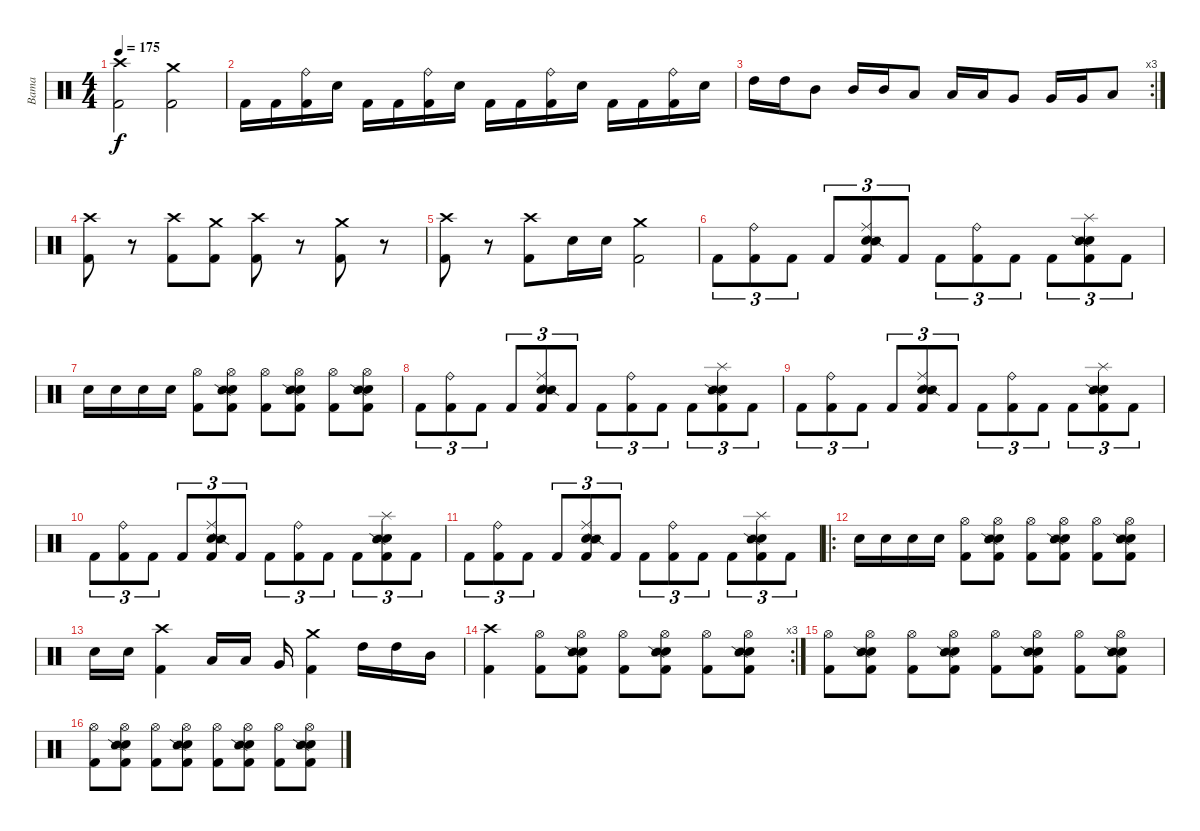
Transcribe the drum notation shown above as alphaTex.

\track ("Bama" "Bama") {instrument percussion}
\staff {score}
\articulation defaults
\ts (4 4)
\tempo 175
\clef neutral
\ks c
("Crash high (hit)" "Kick (hit) 2").2{dy f} ("Crash medium (hit)" "Kick (hit) 2").2 |
"Kick (hit) 2".16 "Kick (hit) 2".16 ("Ride (bell)" "Kick (hit) 2").16 "Electric Snare (hit)".16 "Kick (hit) 2".16 "Kick (hit) 2".16 ("Ride (bell)" "Kick (hit) 2").16 "Electric Snare (hit)".16 "Kick (hit) 2".16 "Kick (hit) 2".16 ("Ride (bell)" "Kick (hit) 2").16 "Electric Snare (hit)".16 "Kick (hit) 2".16 "Kick (hit) 2".16 ("Ride (bell)" "Kick (hit) 2").16 "Electric Snare (hit)".16 |
\rc 3 "High Tom (hit)".16 "High Tom (hit)".16 "Mid Tom (hit)".8 "Mid Tom (hit)".16 "Mid Tom (hit)".16 "Low Tom (hit)".8 "Low Tom (hit)".16 "Low Tom (hit)".16 "Very Low Tom (hit)".8 "Very Low Tom (hit)".16 "Very Low Tom (hit)".16 "Low Floor Tom (hit)".8
|
("Crash high (hit)" "Kick (hit) 2").8 r.8 ("Crash high (hit)" "Kick (hit) 2").8 ("Crash medium (hit)" "Kick (hit) 2").8 ("Crash high (hit)" "Kick (hit) 2").8 r.8 ("Crash medium (hit)" "Kick (hit) 2").8 r.8 |
("Crash high (hit)" "Kick (hit) 2").8 r.8 ("Crash high (hit)" "Kick (hit) 2").8 "Electric Snare (hit)".16 "Electric Snare (hit)".16 ("Crash medium (hit)" "Kick (hit) 2").2 |
"Kick (hit) 2".8{tu (3 2)} ("Ride (bell)" "Kick (hit) 2").8{tu (3 2)} "Kick (hit) 2".8{tu (3 2)} "Kick (hit) 2".8{tu (3 2)} ("Ride (middle)" "Electric Snare (hit)" "Snare (side stick) 2" "Kick (hit) 2").8{tu (3 2)} "Kick (hit) 2".8{tu (3 2)} "Kick (hit) 2".8{tu (3 2)} ("Ride (bell)" "Kick (hit) 2").8{tu (3 2)} "Kick (hit) 2".8{tu (3 2)} "Kick (hit) 2".8{tu (3 2)} ("Splash (hit)" "Electric Snare (hit)" "Snare (side stick) 2" "Kick (hit) 2").8{tu (3 2)} "Kick (hit) 2".8{tu (3 2)} |
"Electric Snare (hit)".16 "Electric Snare (hit)".16 "Electric Snare (hit)".16 "Electric Snare (hit)".16 ("Hi-Hat (open)" "Kick (hit) 2").8 ("Hi-Hat (open)" "Electric Snare (hit)" "Snare (side stick) 2" "Kick (hit) 2").8 ("Hi-Hat (open)" "Kick (hit) 2").8 ("Hi-Hat (open)" "Electric Snare (hit)" "Snare (side stick) 2" "Kick (hit) 2").8 ("Hi-Hat (open)" "Kick (hit) 2").8 ("Hi-Hat (open)" "Electric Snare (hit)" "Snare (side stick) 2" "Kick (hit) 2").8 |
"Kick (hit) 2".8{tu (3 2)} ("Ride (bell)" "Kick (hit) 2").8{tu (3 2)} "Kick (hit) 2".8{tu (3 2)} "Kick (hit) 2".8{tu (3 2)} ("Ride (middle)" "Electric Snare (hit)" "Snare (side stick) 2" "Kick (hit) 2").8{tu (3 2)} "Kick (hit) 2".8{tu (3 2)} "Kick (hit) 2".8{tu (3 2)} ("Ride (bell)" "Kick (hit) 2").8{tu (3 2)} "Kick (hit) 2".8{tu (3 2)} "Kick (hit) 2".8{tu (3 2)} ("Splash (hit)" "Electric Snare (hit)" "Snare (side stick) 2" "Kick (hit) 2").8{tu (3 2)} "Kick (hit) 2".8{tu (3 2)} |
"Kick (hit) 2".8{tu (3 2)} ("Ride (bell)" "Kick (hit) 2").8{tu (3 2)} "Kick (hit) 2".8{tu (3 2)} "Kick (hit) 2".8{tu (3 2)} ("Ride (middle)" "Electric Snare (hit)" "Snare (side stick) 2" "Kick (hit) 2").8{tu (3 2)} "Kick (hit) 2".8{tu (3 2)} "Kick (hit) 2".8{tu (3 2)} ("Ride (bell)" "Kick (hit) 2").8{tu (3 2)} "Kick (hit) 2".8{tu (3 2)} "Kick (hit) 2".8{tu (3 2)} ("Splash (hit)" "Electric Snare (hit)" "Snare (side stick) 2" "Kick (hit) 2").8{tu (3 2)} "Kick (hit) 2".8{tu (3 2)} |
"Kick (hit) 2".8{tu (3 2)} ("Ride (bell)" "Kick (hit) 2").8{tu (3 2)} "Kick (hit) 2".8{tu (3 2)} "Kick (hit) 2".8{tu (3 2)} ("Ride (middle)" "Electric Snare (hit)" "Snare (side stick) 2" "Kick (hit) 2").8{tu (3 2)} "Kick (hit) 2".8{tu (3 2)} "Kick (hit) 2".8{tu (3 2)} ("Ride (bell)" "Kick (hit) 2").8{tu (3 2)} "Kick (hit) 2".8{tu (3 2)} "Kick (hit) 2".8{tu (3 2)} ("Splash (hit)" "Electric Snare (hit)" "Snare (side stick) 2" "Kick (hit) 2").8{tu (3 2)} "Kick (hit) 2".8{tu (3 2)} |
"Kick (hit) 2".8{tu (3 2)} ("Ride (bell)" "Kick (hit) 2").8{tu (3 2)} "Kick (hit) 2".8{tu (3 2)} "Kick (hit) 2".8{tu (3 2)} ("Ride (middle)" "Electric Snare (hit)" "Snare (side stick) 2" "Kick (hit) 2").8{tu (3 2)} "Kick (hit) 2".8{tu (3 2)} "Kick (hit) 2".8{tu (3 2)} ("Ride (bell)" "Kick (hit) 2").8{tu (3 2)} "Kick (hit) 2".8{tu (3 2)} "Kick (hit) 2".8{tu (3 2)} ("Splash (hit)" "Electric Snare (hit)" "Snare (side stick) 2" "Kick (hit) 2").8{tu (3 2)} "Kick (hit) 2".8{tu (3 2)} |
\ro "Electric Snare (hit)".16 "Electric Snare (hit)".16 "Electric Snare (hit)".16 "Electric Snare (hit)".16
("Hi-Hat (open)" "Kick (hit) 2").8 ("Hi-Hat (open)" "Electric Snare (hit)" "Snare (side stick) 2" "Kick (hit) 2").8 ("Hi-Hat (open)" "Kick (hit) 2").8 ("Hi-Hat (open)" "Electric Snare (hit)" "Snare (side stick) 2" "Kick (hit) 2").8 ("Hi-Hat (open)" "Kick (hit) 2").8 ("Hi-Hat (open)" "Electric Snare (hit)" "Snare (side stick) 2" "Kick (hit) 2").8 |
"Electric Snare (hit)".16 "Electric Snare (hit)".16 ("Crash high (hit)" "Kick (hit) 2").4 "Low Tom (hit)".16 "Low Tom (hit)".16 "Very Low Tom (hit)".16 ("Crash medium (hit)" "Kick (hit) 2").4 "High Tom (hit)".16 "High Tom (hit)".16 "Mid Tom (hit)".16 |
\rc 3
("Crash high (hit)" "Kick (hit) 2").4 ("Hi-Hat (open)" "Kick (hit) 2").8 ("Hi-Hat (open)" "Electric Snare (hit)" "Snare (side stick) 2" "Kick (hit) 2").8 ("Hi-Hat (open)" "Kick (hit) 2").8 ("Hi-Hat (open)" "Electric Snare (hit)" "Snare (side stick) 2" "Kick (hit) 2").8 ("Hi-Hat (open)" "Kick (hit) 2").8 ("Hi-Hat (open)" "Electric Snare (hit)" "Snare (side stick) 2" "Kick (hit) 2").8 |
("Hi-Hat (open)" "Kick (hit) 2").8 ("Hi-Hat (open)" "Electric Snare (hit)" "Snare (side stick) 2" "Kick (hit) 2").8 ("Hi-Hat (open)" "Kick (hit) 2").8 ("Hi-Hat (open)" "Electric Snare (hit)" "Snare (side stick) 2" "Kick (hit) 2").8 ("Hi-Hat (open)" "Kick (hit) 2").8 ("Hi-Hat (open)" "Electric Snare (hit)" "Snare (side stick) 2" "Kick (hit) 2").8 ("Hi-Hat (open)" "Kick (hit) 2").8 ("Hi-Hat (open)" "Electric Snare (hit)" "Snare (side stick) 2" "Kick (hit) 2").8 |
("Hi-Hat (open)" "Kick (hit) 2").8 ("Hi-Hat (open)" "Electric Snare (hit)" "Snare (side stick) 2" "Kick (hit) 2").8 ("Hi-Hat (open)" "Kick (hit) 2").8 ("Hi-Hat (open)" "Electric Snare (hit)" "Snare (side stick) 2" "Kick (hit) 2").8 ("Hi-Hat (open)" "Kick (hit) 2").8 ("Hi-Hat (open)" "Electric Snare (hit)" "Snare (side stick) 2" "Kick (hit) 2").8 ("Hi-Hat (open)" "Kick (hit) 2").8 ("Hi-Hat (open)" "Electric Snare (hit)" "Snare (side stick) 2" "Kick (hit) 2").8
